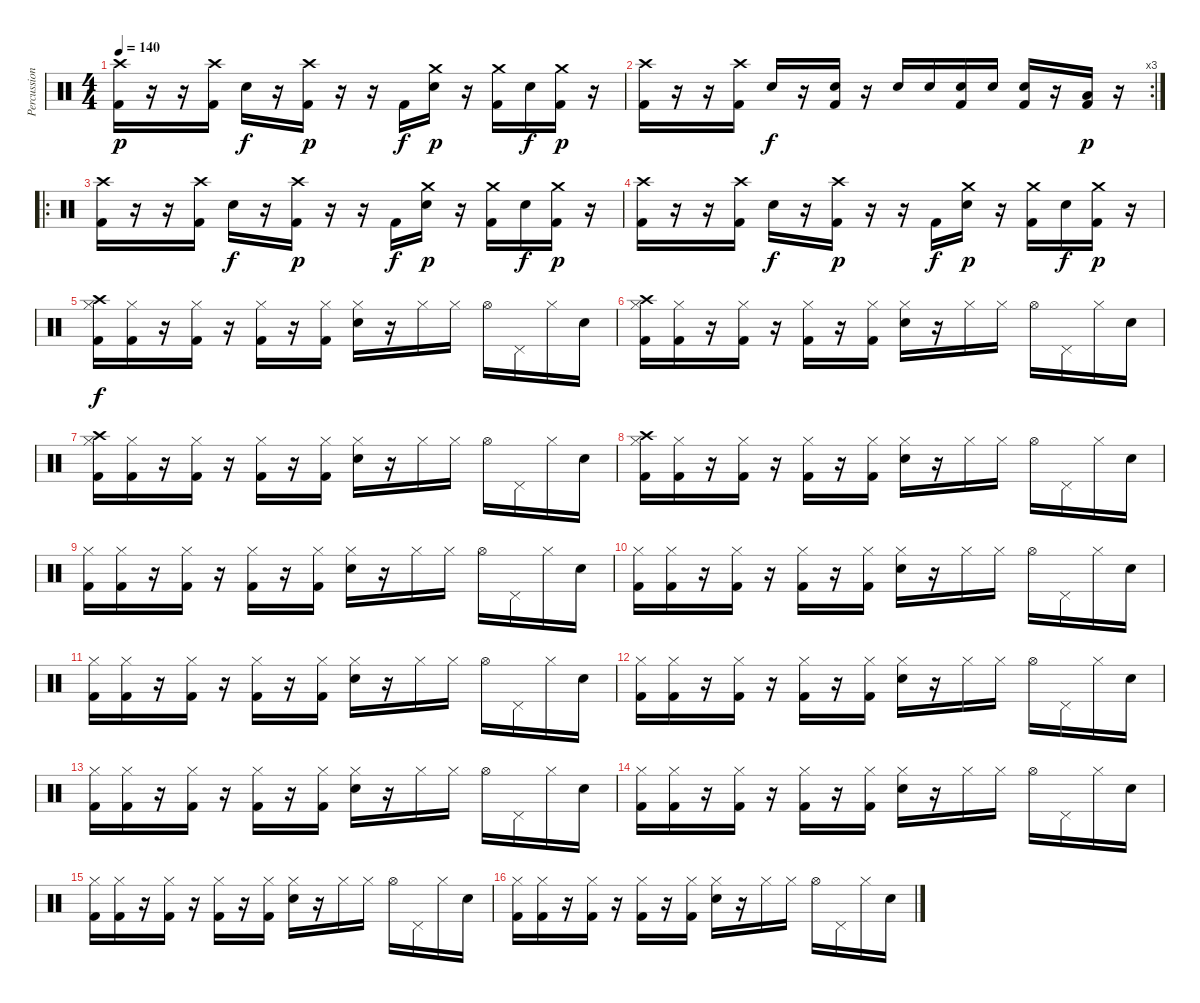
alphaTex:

\track ("Percussion" "Percussion") {instrument percussion}
\staff {score}
\articulation defaults
\ts (4 4)
\tempo 140
\clef neutral
\ks c
("Crash high (hit)" "Kick (hit) 2").16{dy p} r.16 r.16 ("Crash high (hit)" "Kick (hit) 2").16 "Electric Snare (hit)".16{dy f} r.16 ("Crash high (hit)" "Kick (hit) 2").16{dy p} r.16 r.16 "Kick (hit) 2".16{dy f} ("Crash medium (hit)" "Electric Snare (hit)").16{dy p} r.16 ("Crash medium (hit)" "Kick (hit) 2").16 "Electric Snare (hit)".16{dy f} ("Crash medium (hit)" "Kick (hit) 2").16{dy p} r.16 |
\rc 3
("Crash high (hit)" "Kick (hit) 2").16 r.16 r.16 ("Crash high (hit)" "Kick (hit) 2").16 "Electric Snare (hit)".16{dy f} r.16 ("Electric Snare (hit)" "Kick (hit) 2").16 r.16 "Electric Snare (hit)".16 "Snare (hit) 2".16 ("Electric Snare (hit)" "Kick (hit) 2").16 "Snare (hit) 2".16 ("Electric Snare (hit)" "Kick (hit) 2").16 r.16 ("Low Floor Tom (hit)" "Kick (hit) 2").16{dy p} r.16 |
\ro
("Crash high (hit)" "Kick (hit) 2").16 r.16 r.16 ("Crash high (hit)" "Kick (hit) 2").16 "Electric Snare (hit)".16{dy f} r.16 ("Crash high (hit)" "Kick (hit) 2").16{dy p} r.16 r.16 "Kick (hit) 2".16{dy f} ("Crash medium (hit)" "Electric Snare (hit)").16{dy p} r.16 ("Crash medium (hit)" "Kick (hit) 2").16 "Electric Snare (hit)".16{dy f} ("Crash medium (hit)" "Kick (hit) 2").16{dy p} r.16 |
("Crash high (hit)" "Kick (hit) 2").16 r.16 r.16 ("Crash high (hit)" "Kick (hit) 2").16 "Electric Snare (hit)".16{dy f} r.16 ("Crash high (hit)" "Kick (hit) 2").16{dy p} r.16 r.16 "Kick (hit) 2".16{dy f} ("Crash medium (hit)" "Electric Snare (hit)").16{dy p} r.16 ("Crash medium (hit)" "Kick (hit) 2").16 "Electric Snare (hit)".16{dy f} ("Crash medium (hit)" "Kick (hit) 2").16{dy p} r.16 |
("Crash high (hit)" "Hi-Hat (closed)" "Kick (hit) 2").16{dy f} ("Hi-Hat (closed)" "Kick (hit) 2").16 r.16 ("Hi-Hat (closed)" "Kick (hit) 2").16 r.16 ("Hi-Hat (closed)" "Kick (hit) 2").16 r.16 ("Hi-Hat (closed)" "Kick (hit) 2").16 ("Hi-Hat (closed)" "Electric Snare (hit)").16 r.16 "Hi-Hat (closed)".16 "Hi-Hat (closed)".16 "Hi-Hat (open)".16 "Pedal Hi-Hat (hit)".16 "Hi-Hat (closed)".16 "Electric Snare (hit)".16 |
("Crash high (hit)" "Hi-Hat (closed)" "Kick (hit) 2").16 ("Hi-Hat (closed)" "Kick (hit) 2").16 r.16 ("Hi-Hat (closed)" "Kick (hit) 2").16 r.16 ("Hi-Hat (closed)" "Kick (hit) 2").16 r.16 ("Hi-Hat (closed)" "Kick (hit) 2").16 ("Hi-Hat (closed)" "Electric Snare (hit)").16 r.16 "Hi-Hat (closed)".16 "Hi-Hat (closed)".16 "Hi-Hat (open)".16 "Pedal Hi-Hat (hit)".16 "Hi-Hat (closed)".16 "Electric Snare (hit)".16 |
("Crash high (hit)" "Hi-Hat (closed)" "Kick (hit) 2").16 ("Hi-Hat (closed)" "Kick (hit) 2").16 r.16 ("Hi-Hat (closed)" "Kick (hit) 2").16 r.16 ("Hi-Hat (closed)" "Kick (hit) 2").16 r.16 ("Hi-Hat (closed)" "Kick (hit) 2").16 ("Hi-Hat (closed)" "Electric Snare (hit)").16 r.16 "Hi-Hat (closed)".16 "Hi-Hat (closed)".16 "Hi-Hat (open)".16 "Pedal Hi-Hat (hit)".16 "Hi-Hat (closed)".16 "Electric Snare (hit)".16 |
("Crash high (hit)" "Hi-Hat (closed)" "Kick (hit) 2").16 ("Hi-Hat (closed)" "Kick (hit) 2").16 r.16 ("Hi-Hat (closed)" "Kick (hit) 2").16 r.16 ("Hi-Hat (closed)" "Kick (hit) 2").16 r.16 ("Hi-Hat (closed)" "Kick (hit) 2").16 ("Hi-Hat (closed)" "Electric Snare (hit)").16 r.16 "Hi-Hat (closed)".16 "Hi-Hat (closed)".16 "Hi-Hat (open)".16 "Pedal Hi-Hat (hit)".16 "Hi-Hat (closed)".16 "Electric Snare (hit)".16 |
("Hi-Hat (closed)" "Kick (hit) 2").16 ("Hi-Hat (closed)" "Kick (hit) 2").16 r.16 ("Hi-Hat (closed)" "Kick (hit) 2").16 r.16 ("Hi-Hat (closed)" "Kick (hit) 2").16 r.16 ("Hi-Hat (closed)" "Kick (hit) 2").16 ("Hi-Hat (closed)" "Electric Snare (hit)").16 r.16 "Hi-Hat (closed)".16 "Hi-Hat (closed)".16 "Hi-Hat (open)".16 "Pedal Hi-Hat (hit)".16 "Hi-Hat (closed)".16 "Electric Snare (hit)".16 |
("Hi-Hat (closed)" "Kick (hit) 2").16 ("Hi-Hat (closed)" "Kick (hit) 2").16 r.16 ("Hi-Hat (closed)" "Kick (hit) 2").16 r.16 ("Hi-Hat (closed)" "Kick (hit) 2").16 r.16 ("Hi-Hat (closed)" "Kick (hit) 2").16 ("Hi-Hat (closed)" "Electric Snare (hit)").16 r.16 "Hi-Hat (closed)".16 "Hi-Hat (closed)".16 "Hi-Hat (open)".16 "Pedal Hi-Hat (hit)".16 "Hi-Hat (closed)".16 "Electric Snare (hit)".16 |
("Hi-Hat (closed)" "Kick (hit) 2").16 ("Hi-Hat (closed)" "Kick (hit) 2").16 r.16 ("Hi-Hat (closed)" "Kick (hit) 2").16 r.16 ("Hi-Hat (closed)" "Kick (hit) 2").16 r.16 ("Hi-Hat (closed)" "Kick (hit) 2").16 ("Hi-Hat (closed)" "Electric Snare (hit)").16 r.16 "Hi-Hat (closed)".16 "Hi-Hat (closed)".16 "Hi-Hat (open)".16 "Pedal Hi-Hat (hit)".16 "Hi-Hat (closed)".16 "Electric Snare (hit)".16 |
("Hi-Hat (closed)" "Kick (hit) 2").16 ("Hi-Hat (closed)" "Kick (hit) 2").16 r.16 ("Hi-Hat (closed)" "Kick (hit) 2").16 r.16 ("Hi-Hat (closed)" "Kick (hit) 2").16 r.16 ("Hi-Hat (closed)" "Kick (hit) 2").16 ("Hi-Hat (closed)" "Electric Snare (hit)").16 r.16 "Hi-Hat (closed)".16 "Hi-Hat (closed)".16 "Hi-Hat (open)".16 "Pedal Hi-Hat (hit)".16 "Hi-Hat (closed)".16 "Electric Snare (hit)".16 |
("Hi-Hat (closed)" "Kick (hit) 2").16 ("Hi-Hat (closed)" "Kick (hit) 2").16 r.16 ("Hi-Hat (closed)" "Kick (hit) 2").16 r.16 ("Hi-Hat (closed)" "Kick (hit) 2").16 r.16 ("Hi-Hat (closed)" "Kick (hit) 2").16 ("Hi-Hat (closed)" "Electric Snare (hit)").16 r.16 "Hi-Hat (closed)".16 "Hi-Hat (closed)".16 "Hi-Hat (open)".16 "Pedal Hi-Hat (hit)".16 "Hi-Hat (closed)".16 "Electric Snare (hit)".16 |
("Hi-Hat (closed)" "Kick (hit) 2").16 ("Hi-Hat (closed)" "Kick (hit) 2").16 r.16 ("Hi-Hat (closed)" "Kick (hit) 2").16 r.16 ("Hi-Hat (closed)" "Kick (hit) 2").16 r.16 ("Hi-Hat (closed)" "Kick (hit) 2").16 ("Hi-Hat (closed)" "Electric Snare (hit)").16 r.16 "Hi-Hat (closed)".16 "Hi-Hat (closed)".16 "Hi-Hat (open)".16 "Pedal Hi-Hat (hit)".16 "Hi-Hat (closed)".16 "Electric Snare (hit)".16 |
("Hi-Hat (closed)" "Kick (hit) 2").16 ("Hi-Hat (closed)" "Kick (hit) 2").16 r.16 ("Hi-Hat (closed)" "Kick (hit) 2").16 r.16 ("Hi-Hat (closed)" "Kick (hit) 2").16 r.16 ("Hi-Hat (closed)" "Kick (hit) 2").16 ("Hi-Hat (closed)" "Electric Snare (hit)").16 r.16 "Hi-Hat (closed)".16 "Hi-Hat (closed)".16 "Hi-Hat (open)".16 "Pedal Hi-Hat (hit)".16 "Hi-Hat (closed)".16 "Electric Snare (hit)".16 |
("Hi-Hat (closed)" "Kick (hit) 2").16 ("Hi-Hat (closed)" "Kick (hit) 2").16 r.16 ("Hi-Hat (closed)" "Kick (hit) 2").16 r.16 ("Hi-Hat (closed)" "Kick (hit) 2").16 r.16 ("Hi-Hat (closed)" "Kick (hit) 2").16 ("Hi-Hat (closed)" "Electric Snare (hit)").16 r.16 "Hi-Hat (closed)".16 "Hi-Hat (closed)".16 "Hi-Hat (open)".16 "Pedal Hi-Hat (hit)".16 "Hi-Hat (closed)".16 "Electric Snare (hit)".16
